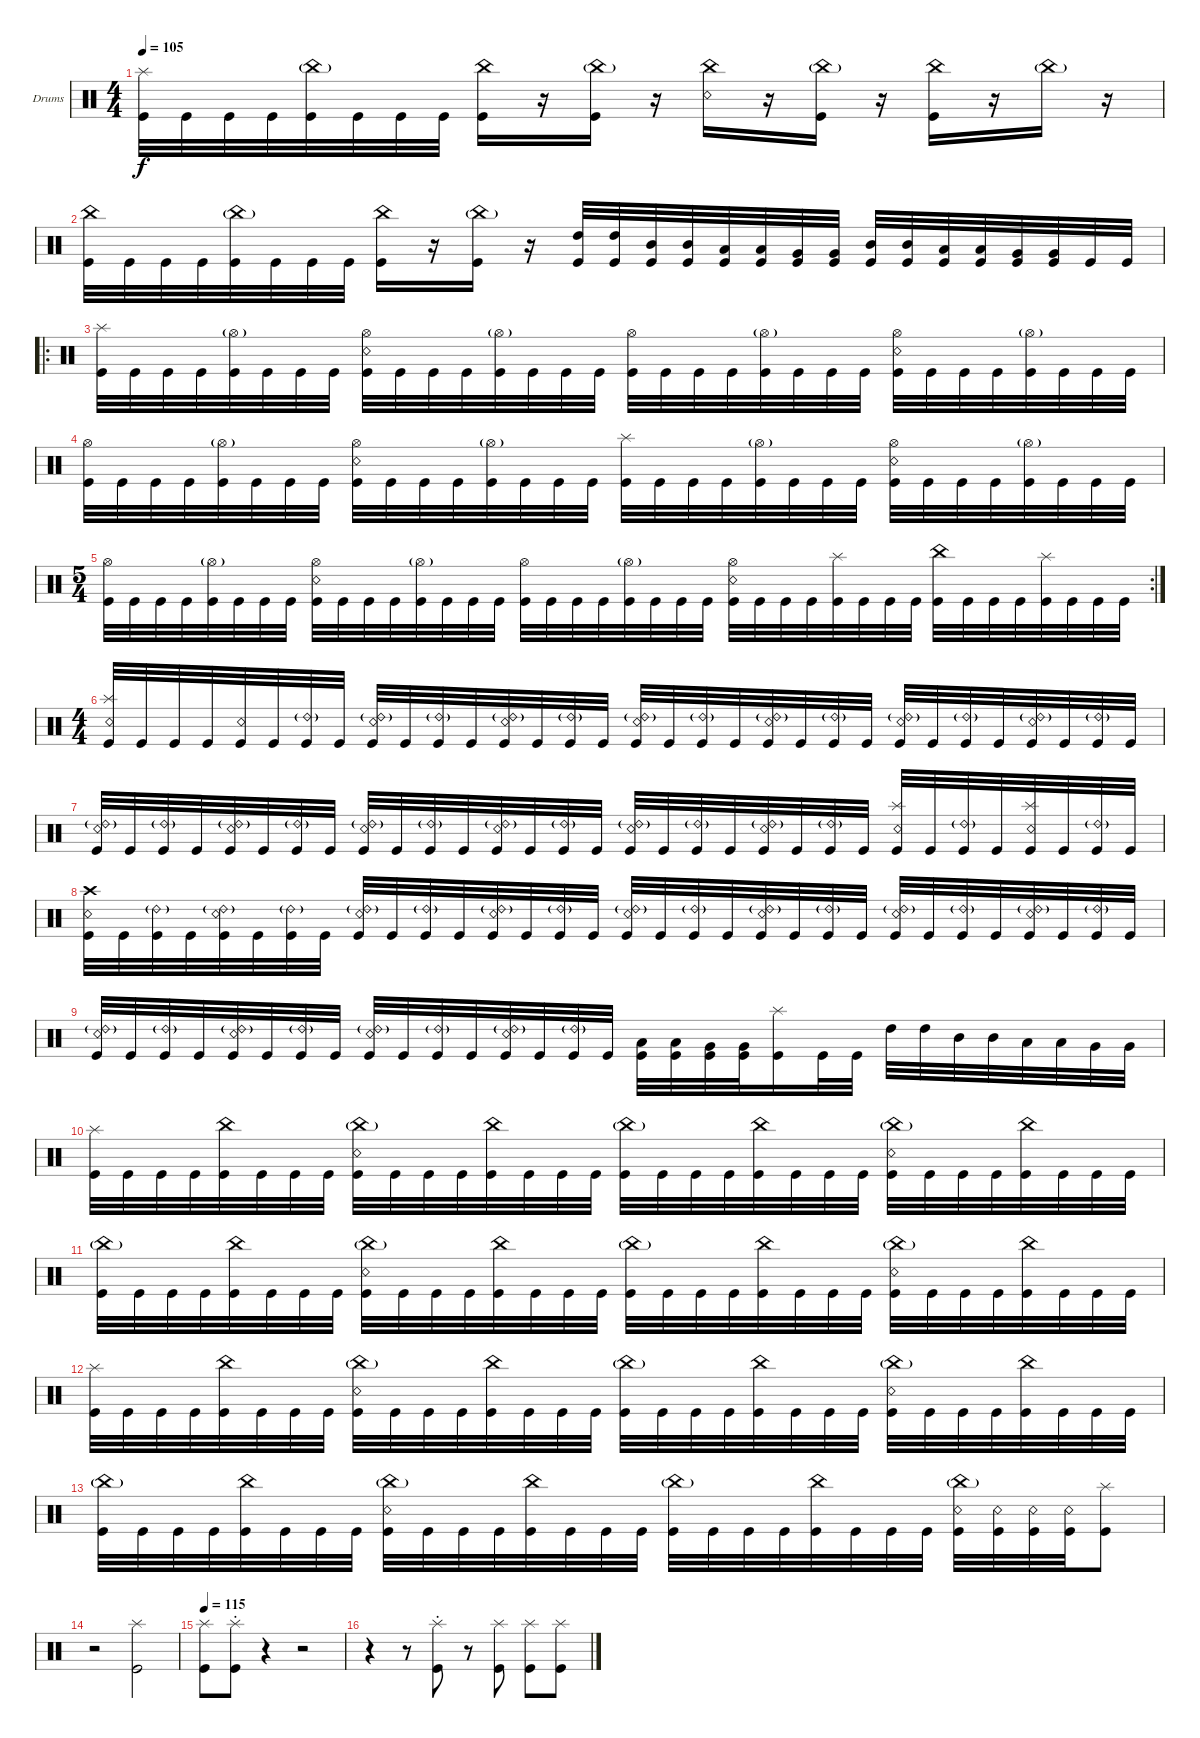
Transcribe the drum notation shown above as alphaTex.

\defaultSystemsLayout 4
\bracketExtendMode groupsimilarinstruments
\firstSystemTrackNameOrientation horizontal
\otherSystemsTrackNameOrientation horizontal
\track ("Drumkit" "Drums") {instrument percussion}
\staff {score}
\articulation defaults
\ts (4 4)
\tempo 105
\clef neutral
\ks c
("Kick (hit)" "Splash (hit)").32{dy f} "Kick (hit)".32 "Kick (hit)".32 "Kick (hit)".32 ("Kick (hit)" "China (hit)"{g}).32 "Kick (hit)".32 "Kick (hit)".32 "Kick (hit)".32 ("Kick (hit)" "China (hit)").16 r.16 ("Kick (hit)" "China (hit)"{g}).16 r.16 ("Snare (rim shot)" "China (hit)").16 r.16 ("Kick (hit)" "China (hit)"{g}).16 r.16 ("Kick (hit)" "China (hit)").16 r.16 "China (hit)"{g}.16 r.16 |
("Kick (hit)" "China (hit)").32 "Kick (hit)".32 "Kick (hit)".32 "Kick (hit)".32 ("Kick (hit)" "China (hit)"{g}).32 "Kick (hit)".32 "Kick (hit)".32 "Kick (hit)".32 ("Kick (hit)" "China (hit)").16 r.16 ("Kick (hit)" "China (hit)"{g}).16 r.16 ("High Tom (hit)" "Kick (hit)").32 ("High Tom (hit)" "Kick (hit)").32 ("Mid Tom (hit)" "Kick (hit)").32 ("Mid Tom (hit)" "Kick (hit)").32 ("Low Tom (hit)" "Kick (hit)").32 ("Low Tom (hit)" "Kick (hit)").32 ("Very Low Tom (hit)" "Kick (hit)").32 ("Very Low Tom (hit)" "Kick (hit)").32 ("Mid Tom (hit)" "Kick (hit)").32 ("Mid Tom (hit)" "Kick (hit)").32 ("Low Tom (hit)" "Kick (hit)").32 ("Low Tom (hit)" "Kick (hit)").32 ("Very Low Tom (hit)" "Kick (hit)").32 ("Very Low Tom (hit)" "Kick (hit)").32 "Kick (hit)".32 "Kick (hit)".32 |
\ro
("Kick (hit)" "Splash (hit)").32 "Kick (hit)".32 "Kick (hit)".32 "Kick (hit)".32 ("Kick (hit)" "Hi-Hat (open)"{g}).32 "Kick (hit)".32 "Kick (hit)".32 "Kick (hit)".32 ("Kick (hit)" "Snare (rim shot)" "Hi-Hat (open)").32 "Kick (hit)".32 "Kick (hit)".32 "Kick (hit)".32 ("Kick (hit)" "Hi-Hat (open)"{g}).32 "Kick (hit)".32 "Kick (hit)".32 "Kick (hit)".32 ("Kick (hit)" "Hi-Hat (open)").32 "Kick (hit)".32 "Kick (hit)".32 "Kick (hit)".32 ("Kick (hit)" "Hi-Hat (open)"{g}).32 "Kick (hit)".32 "Kick (hit)".32 "Kick (hit)".32 ("Kick (hit)" "Snare (rim shot)" "Hi-Hat (open)").32 "Kick (hit)".32 "Kick (hit)".32 "Kick (hit)".32 ("Kick (hit)" "Hi-Hat (open)"{g}).32 "Kick (hit)".32 "Kick (hit)".32 "Kick (hit)".32 |
("Kick (hit)" "Hi-Hat (open)").32 "Kick (hit)".32 "Kick (hit)".32 "Kick (hit)".32 ("Kick (hit)" "Hi-Hat (open)"{g}).32 "Kick (hit)".32 "Kick (hit)".32 "Kick (hit)".32 ("Kick (hit)" "Snare (rim shot)" "Hi-Hat (open)").32 "Kick (hit)".32 "Kick (hit)".32 "Kick (hit)".32 ("Kick (hit)" "Hi-Hat (open)"{g}).32 "Kick (hit)".32 "Kick (hit)".32 "Kick (hit)".32 ("Kick (hit)" "Splash (hit)").32 "Kick (hit)".32 "Kick (hit)".32 "Kick (hit)".32 ("Kick (hit)" "Hi-Hat (open)"{g}).32 "Kick (hit)".32 "Kick (hit)".32 "Kick (hit)".32 ("Kick (hit)" "Snare (rim shot)" "Hi-Hat (open)").32 "Kick (hit)".32 "Kick (hit)".32 "Kick (hit)".32 ("Kick (hit)" "Hi-Hat (open)"{g}).32 "Kick (hit)".32 "Kick (hit)".32 "Kick (hit)".32 |
\rc 2
\ts (5 4)
("Kick (hit)" "Hi-Hat (open)").32 "Kick (hit)".32 "Kick (hit)".32 "Kick (hit)".32 ("Kick (hit)" "Hi-Hat (open)"{g}).32 "Kick (hit)".32 "Kick (hit)".32 "Kick (hit)".32{beam split} ("Kick (hit)" "Snare (rim shot)" "Hi-Hat (open)").32 "Kick (hit)".32 "Kick (hit)".32 "Kick (hit)".32 ("Kick (hit)" "Hi-Hat (open)"{g}).32 "Kick (hit)".32 "Kick (hit)".32 "Kick (hit)".32{beam split} ("Kick (hit)" "Hi-Hat (open)").32 "Kick (hit)".32 "Kick (hit)".32 "Kick (hit)".32 ("Kick (hit)" "Hi-Hat (open)"{g}).32 "Kick (hit)".32 "Kick (hit)".32 "Kick (hit)".32 ("Kick (hit)" "Snare (rim shot)" "Hi-Hat (open)").32 "Kick (hit)".32 "Kick (hit)".32 "Kick (hit)".32 ("Kick (hit)" "Splash (hit)").32 "Kick (hit)".32 "Kick (hit)".32 "Kick (hit)".32{beam split} ("Kick (hit)" "China (hit)").32 "Kick (hit)".32 "Kick (hit)".32 "Kick (hit)".32 ("Kick (hit)" "Splash (hit)").32 "Kick (hit)".32 "Kick (hit)".32 "Kick (hit)".32 |
\ts (4 4)
("Kick (hit)" "Snare (rim shot)" "Splash (hit)").32 "Kick (hit)".32 "Kick (hit)".32 "Kick (hit)".32 ("Kick (hit)" "Snare (rim shot)").32 "Kick (hit)".32 ("Kick (hit)" "Ride (bell) 2"{g}).32 "Kick (hit)".32 ("Kick (hit)" "Snare (rim shot)" "Ride (bell) 2"{g}).32 "Kick (hit)".32 ("Kick (hit)" "Ride (bell) 2"{g}).32 "Kick (hit)".32 ("Kick (hit)" "Snare (rim shot)" "Ride (bell) 2"{g}).32 "Kick (hit)".32 ("Kick (hit)" "Ride (bell) 2"{g}).32 "Kick (hit)".32 ("Kick (hit)" "Snare (rim shot)" "Ride (bell) 2"{g}).32 "Kick (hit)".32 ("Kick (hit)" "Ride (bell) 2"{g}).32 "Kick (hit)".32 ("Kick (hit)" "Snare (rim shot)" "Ride (bell) 2"{g}).32 "Kick (hit)".32 ("Kick (hit)" "Ride (bell) 2"{g}).32 "Kick (hit)".32 ("Kick (hit)" "Snare (rim shot)" "Ride (bell) 2"{g}).32 "Kick (hit)".32 ("Kick (hit)" "Ride (bell) 2"{g}).32 "Kick (hit)".32 ("Kick (hit)" "Snare (rim shot)" "Ride (bell) 2"{g}).32 "Kick (hit)".32 ("Kick (hit)" "Ride (bell) 2"{g}).32 "Kick (hit)".32 |
("Kick (hit)" "Snare (rim shot)" "Ride (bell) 2"{g}).32 "Kick (hit)".32 ("Kick (hit)" "Ride (bell) 2"{g}).32 "Kick (hit)".32 ("Kick (hit)" "Snare (rim shot)" "Ride (bell) 2"{g}).32 "Kick (hit)".32 ("Kick (hit)" "Ride (bell) 2"{g}).32 "Kick (hit)".32 ("Kick (hit)" "Snare (rim shot)" "Ride (bell) 2"{g}).32 "Kick (hit)".32 ("Kick (hit)" "Ride (bell) 2"{g}).32 "Kick (hit)".32 ("Kick (hit)" "Snare (rim shot)" "Ride (bell) 2"{g}).32 "Kick (hit)".32 ("Kick (hit)" "Ride (bell) 2"{g}).32 "Kick (hit)".32 ("Kick (hit)" "Snare (rim shot)" "Ride (bell) 2"{g}).32 "Kick (hit)".32 ("Kick (hit)" "Ride (bell) 2"{g}).32 "Kick (hit)".32 ("Kick (hit)" "Snare (rim shot)" "Ride (bell) 2"{g}).32 "Kick (hit)".32 ("Kick (hit)" "Ride (bell) 2"{g}).32 "Kick (hit)".32 ("Kick (hit)" "Snare (rim shot)" "Splash (hit)").32 "Kick (hit)".32 ("Kick (hit)" "Ride (bell) 2"{g}).32 "Kick (hit)".32 ("Kick (hit)" "Snare (rim shot)" "Splash (hit)").32 "Kick (hit)".32 ("Kick (hit)" "Ride (bell) 2"{g}).32 "Kick (hit)".32 |
("Kick (hit)" "Snare (rim shot)" "Crash high (hit)").32 "Kick (hit)".32 ("Kick (hit)" "Ride (bell) 2"{g}).32 "Kick (hit)".32 ("Kick (hit)" "Snare (rim shot)" "Ride (bell) 2"{g}).32 "Kick (hit)".32 ("Kick (hit)" "Ride (bell) 2"{g}).32 "Kick (hit)".32 ("Kick (hit)" "Snare (rim shot)" "Ride (bell) 2"{g}).32 "Kick (hit)".32 ("Kick (hit)" "Ride (bell) 2"{g}).32 "Kick (hit)".32 ("Kick (hit)" "Snare (rim shot)" "Ride (bell) 2"{g}).32 "Kick (hit)".32 ("Kick (hit)" "Ride (bell) 2"{g}).32 "Kick (hit)".32 ("Kick (hit)" "Snare (rim shot)" "Ride (bell) 2"{g}).32 "Kick (hit)".32 ("Kick (hit)" "Ride (bell) 2"{g}).32 "Kick (hit)".32 ("Kick (hit)" "Snare (rim shot)" "Ride (bell) 2"{g}).32 "Kick (hit)".32 ("Kick (hit)" "Ride (bell) 2"{g}).32 "Kick (hit)".32 ("Kick (hit)" "Snare (rim shot)" "Ride (bell) 2"{g}).32 "Kick (hit)".32 ("Kick (hit)" "Ride (bell) 2"{g}).32 "Kick (hit)".32 ("Kick (hit)" "Snare (rim shot)" "Ride (bell) 2"{g}).32 "Kick (hit)".32 ("Kick (hit)" "Ride (bell) 2"{g}).32 "Kick (hit)".32 |
("Kick (hit)" "Snare (rim shot)" "Ride (bell) 2"{g}).32 "Kick (hit)".32 ("Kick (hit)" "Ride (bell) 2"{g}).32 "Kick (hit)".32 ("Kick (hit)" "Snare (rim shot)" "Ride (bell) 2"{g}).32 "Kick (hit)".32 ("Kick (hit)" "Ride (bell) 2"{g}).32 "Kick (hit)".32 ("Kick (hit)" "Snare (rim shot)" "Ride (bell) 2"{g}).32 "Kick (hit)".32 ("Kick (hit)" "Ride (bell) 2"{g}).32 "Kick (hit)".32 ("Kick (hit)" "Snare (rim shot)" "Ride (bell) 2"{g}).32 "Kick (hit)".32 ("Kick (hit)" "Ride (bell) 2"{g}).32 "Kick (hit)".32 ("Low Tom (hit)" "Kick (hit)").32 ("Low Tom (hit)" "Kick (hit)").32 ("Very Low Tom (hit)" "Kick (hit)").32 ("Kick (hit)" "Very Low Tom (hit)").32 ("Kick (hit)" "Splash (hit)").16 "Kick (hit)".32 "Kick (hit)".32 "High Tom (hit)".32 "High Tom (hit)".32 "Mid Tom (hit)".32 "Mid Tom (hit)".32 "Low Tom (hit)".32 "Low Tom (hit)".32 "Very Low Tom (hit)".32 "Very Low Tom (hit)".32 |
("Kick (hit)" "Splash (hit)").32 "Kick (hit)".32 "Kick (hit)".32 "Kick (hit)".32 ("Kick (hit)" "China (hit)").32 "Kick (hit)".32 "Kick (hit)".32 "Kick (hit)".32 ("Kick (hit)" "Snare (rim shot)" "China (hit)"{g}).32 "Kick (hit)".32 "Kick (hit)".32 "Kick (hit)".32 ("Kick (hit)" "China (hit)").32 "Kick (hit)".32 "Kick (hit)".32 "Kick (hit)".32 ("Kick (hit)" "China (hit)"{g}).32 "Kick (hit)".32 "Kick (hit)".32 "Kick (hit)".32 ("Kick (hit)" "China (hit)").32 "Kick (hit)".32 "Kick (hit)".32 "Kick (hit)".32 ("Kick (hit)" "Snare (rim shot)" "China (hit)"{g}).32 "Kick (hit)".32 "Kick (hit)".32 "Kick (hit)".32 ("Kick (hit)" "China (hit)").32 "Kick (hit)".32 "Kick (hit)".32 "Kick (hit)".32 |
("Kick (hit)" "China (hit)"{g}).32 "Kick (hit)".32 "Kick (hit)".32 "Kick (hit)".32 ("Kick (hit)" "China (hit)").32 "Kick (hit)".32 "Kick (hit)".32 "Kick (hit)".32 ("Kick (hit)" "Snare (rim shot)" "China (hit)"{g}).32 "Kick (hit)".32 "Kick (hit)".32 "Kick (hit)".32 ("Kick (hit)" "China (hit)").32 "Kick (hit)".32 "Kick (hit)".32 "Kick (hit)".32 ("Kick (hit)" "China (hit)"{g}).32 "Kick (hit)".32 "Kick (hit)".32 "Kick (hit)".32 ("Kick (hit)" "China (hit)").32 "Kick (hit)".32 "Kick (hit)".32 "Kick (hit)".32 ("Kick (hit)" "Snare (rim shot)" "China (hit)"{g}).32 "Kick (hit)".32 "Kick (hit)".32 "Kick (hit)".32 ("Kick (hit)" "China (hit)").32 "Kick (hit)".32 "Kick (hit)".32 "Kick (hit)".32 |
("Kick (hit)" "Splash (hit)").32 "Kick (hit)".32 "Kick (hit)".32 "Kick (hit)".32 ("Kick (hit)" "China (hit)").32 "Kick (hit)".32 "Kick (hit)".32 "Kick (hit)".32 ("Kick (hit)" "Snare (rim shot)" "China (hit)"{g}).32 "Kick (hit)".32 "Kick (hit)".32 "Kick (hit)".32 ("Kick (hit)" "China (hit)").32 "Kick (hit)".32 "Kick (hit)".32 "Kick (hit)".32 ("Kick (hit)" "China (hit)"{g}).32 "Kick (hit)".32 "Kick (hit)".32 "Kick (hit)".32 ("Kick (hit)" "China (hit)").32 "Kick (hit)".32 "Kick (hit)".32 "Kick (hit)".32 ("Kick (hit)" "Snare (rim shot)" "China (hit)"{g}).32 "Kick (hit)".32 "Kick (hit)".32 "Kick (hit)".32 ("Kick (hit)" "China (hit)").32 "Kick (hit)".32 "Kick (hit)".32 "Kick (hit)".32 |
("Kick (hit)" "China (hit)"{g}).32 "Kick (hit)".32 "Kick (hit)".32 "Kick (hit)".32 ("Kick (hit)" "China (hit)").32 "Kick (hit)".32 "Kick (hit)".32 "Kick (hit)".32 ("Kick (hit)" "Snare (rim shot)" "China (hit)"{g}).32 "Kick (hit)".32 "Kick (hit)".32 "Kick (hit)".32 ("Kick (hit)" "China (hit)").32 "Kick (hit)".32 "Kick (hit)".32 "Kick (hit)".32 ("Kick (hit)" "China (hit)"{g}).32 "Kick (hit)".32 "Kick (hit)".32 "Kick (hit)".32 ("Kick (hit)" "China (hit)").32 "Kick (hit)".32 "Kick (hit)".32 "Kick (hit)".32 ("Kick (hit)" "Snare (rim shot)" "China (hit)"{g}).32 ("Kick (hit)" "Snare (rim shot)").32 ("Kick (hit)" "Snare (rim shot)").32 ("Kick (hit)" "Snare (rim shot)").32 ("Kick (hit)" "Splash (hit)").8 |
r.2 ("Kick (hit)" "Splash (hit)").2 |
\tempo (115 0.00625)
("Kick (hit)" "Splash (hit)").8 ("Kick (hit)" "Splash (hit)"{st}).8 r.4 r.2 |
r.4 r.8 ("Kick (hit)" "Splash (hit)"{st}).8 r.8 ("Kick (hit)" "Splash (hit)").8 ("Kick (hit)" "Splash (hit)").8 ("Kick (hit)" "Splash (hit)").8
